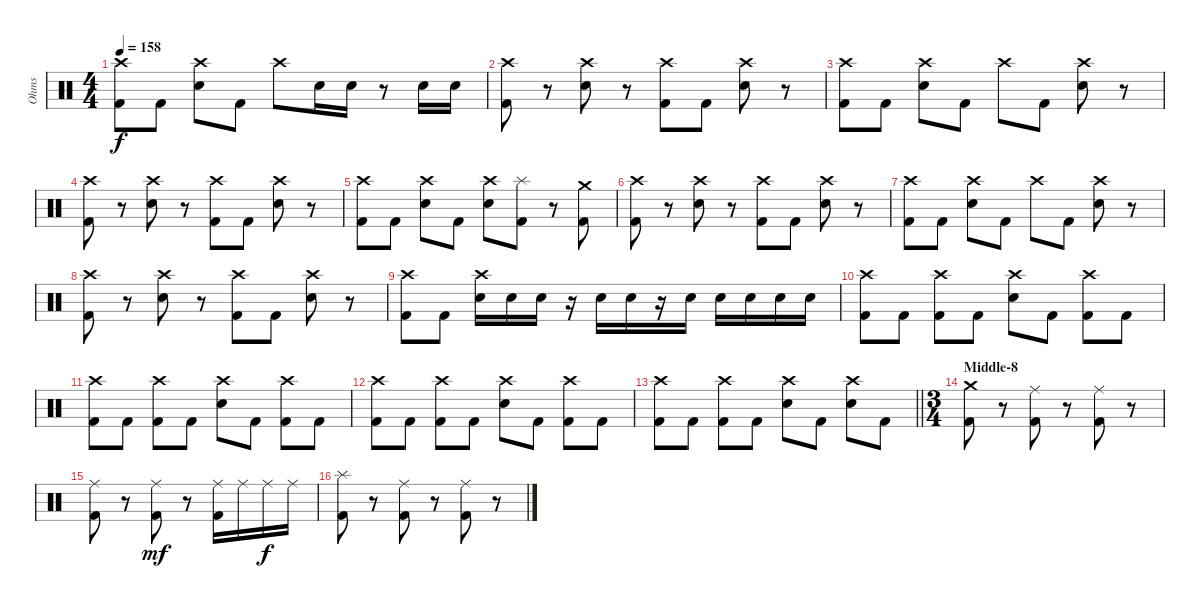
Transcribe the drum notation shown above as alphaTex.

\track ("Ohms" "Ohms") {instrument percussion}
\staff {score}
\articulation defaults
\ts (4 4)
\tempo 158
\clef neutral
\ks c
("Crash high (hit)" "Kick (hit) 2").8{dy f} "Kick (hit) 2".8 ("Crash high (hit)" "Snare (hit) 2").8 "Kick (hit) 2".8 "Crash high (hit)".8 "Snare (hit) 2".16 "Snare (hit) 2".16 r.8 "Snare (hit) 2".16 "Snare (hit) 2".16 |
("Crash high (hit)" "Kick (hit) 2").8 r.8 ("Crash high (hit)" "Snare (hit) 2").8 r.8 ("Crash high (hit)" "Kick (hit) 2").8 "Kick (hit) 2".8 ("Crash high (hit)" "Snare (hit) 2").8 r.8 |
("Crash high (hit)" "Kick (hit) 2").8 "Kick (hit) 2".8 ("Crash high (hit)" "Snare (hit) 2").8 "Kick (hit) 2".8 "Crash high (hit)".8 "Kick (hit) 2".8 ("Crash high (hit)" "Snare (hit) 2").8 r.8 |
("Crash high (hit)" "Kick (hit) 2").8 r.8 ("Crash high (hit)" "Snare (hit) 2").8 r.8 ("Crash high (hit)" "Kick (hit) 2").8 "Kick (hit) 2".8 ("Crash high (hit)" "Snare (hit) 2").8 r.8 |
("Crash high (hit)" "Kick (hit) 2").8 "Kick (hit) 2".8 ("Crash high (hit)" "Snare (hit) 2").8 "Kick (hit) 2".8 ("Crash high (hit)" "Snare (hit) 2").8 ("Splash (hit)" "Kick (hit) 2").8 r.8 ("Crash medium (hit)" "Kick (hit) 2").8 |
("Crash high (hit)" "Kick (hit) 2").8 r.8 ("Crash high (hit)" "Snare (hit) 2").8 r.8 ("Crash high (hit)" "Kick (hit) 2").8 "Kick (hit) 2".8 ("Crash high (hit)" "Snare (hit) 2").8 r.8 |
("Crash high (hit)" "Kick (hit) 2").8 "Kick (hit) 2".8 ("Crash high (hit)" "Snare (hit) 2").8 "Kick (hit) 2".8 "Crash high (hit)".8 "Kick (hit) 2".8 ("Crash high (hit)" "Snare (hit) 2").8 r.8 |
("Crash high (hit)" "Kick (hit) 2").8 r.8 ("Crash high (hit)" "Snare (hit) 2").8 r.8 ("Crash high (hit)" "Kick (hit) 2").8 "Kick (hit) 2".8 ("Crash high (hit)" "Snare (hit) 2").8 r.8 |
("Crash high (hit)" "Kick (hit) 2").8 "Kick (hit) 2".8 ("Crash high (hit)" "Snare (hit) 2").16 "Snare (hit) 2".16 "Snare (hit) 2".16 r.16 "Snare (hit) 2".16 "Snare (hit) 2".16 r.16 "Snare (hit) 2".16 "Snare (hit) 2".16 "Snare (hit) 2".16 "Snare (hit) 2".16 "Snare (hit) 2".16 |
("Crash high (hit)" "Kick (hit) 2").8 "Kick (hit) 2".8 ("Crash high (hit)" "Kick (hit) 2").8 "Kick (hit) 2".8 ("Crash high (hit)" "Snare (hit) 2").8 "Kick (hit) 2".8 ("Crash high (hit)" "Kick (hit) 2").8 "Kick (hit) 2".8 |
("Crash high (hit)" "Kick (hit) 2").8 "Kick (hit) 2".8 ("Crash high (hit)" "Kick (hit) 2").8 "Kick (hit) 2".8 ("Crash high (hit)" "Snare (hit) 2").8 "Kick (hit) 2".8 ("Crash high (hit)" "Kick (hit) 2").8 "Kick (hit) 2".8 |
("Crash high (hit)" "Kick (hit) 2").8 "Kick (hit) 2".8 ("Crash high (hit)" "Kick (hit) 2").8 "Kick (hit) 2".8 ("Crash high (hit)" "Snare (hit) 2").8 "Kick (hit) 2".8 ("Crash high (hit)" "Kick (hit) 2").8 "Kick (hit) 2".8 |
\barLineRight lightlight
("Crash high (hit)" "Kick (hit) 2").8 "Kick (hit) 2".8 ("Crash high (hit)" "Kick (hit) 2").8 "Kick (hit) 2".8 ("Crash high (hit)" "Snare (hit) 2").8 "Kick (hit) 2".8 ("Crash high (hit)" "Snare (hit) 2").8 "Kick (hit) 2".8 |
\ts (3 4)
\section ("" "Middle-8")
("Crash medium (hit)" "Kick (hit) 2").8 r.8 ("Ride (middle)" "Kick (hit) 2").8 r.8 ("Ride (middle)" "Kick (hit) 2").8 r.8 |
("Ride (middle)" "Kick (hit) 2").8 r.8 ("Ride (middle)" "Kick (hit) 2").8{dy mf} r.8 ("Ride (middle)" "Kick (hit) 2").16 "Ride (middle)".16 "Ride (middle)".16{dy f} "Ride (middle)".16 |
("Splash (hit)" "Kick (hit) 2").8 r.8 ("Ride (middle)" "Kick (hit) 2").8 r.8 ("Ride (middle)" "Kick (hit) 2").8 r.8
